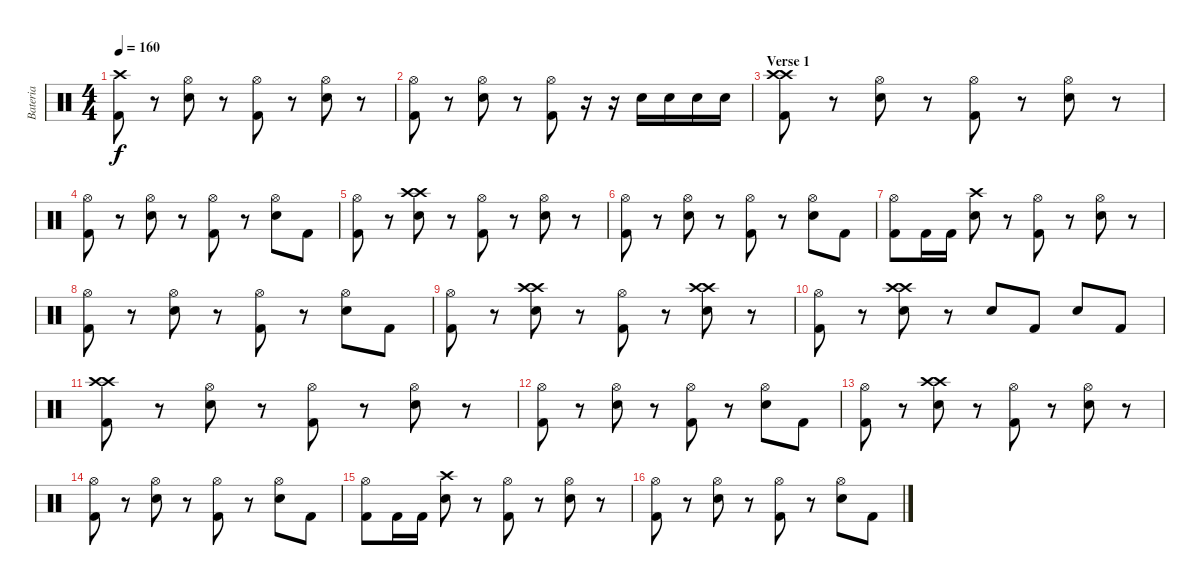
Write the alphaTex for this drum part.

\track ("Bateria" "Bateria") {instrument percussion}
\staff {score}
\articulation defaults
\ts (4 4)
\tempo 160
\clef neutral
\ks c
("Crash high (hit)" "Kick (hit) 2").8{dy f} r.8 ("Hi-Hat (open)" "Snare (hit) 2").8 r.8 ("Hi-Hat (open)" "Kick (hit) 2").8 r.8 ("Hi-Hat (open)" "Snare (hit) 2").8 r.8 |
("Hi-Hat (open)" "Kick (hit) 2").8 r.8 ("Hi-Hat (open)" "Snare (hit) 2").8 r.8 ("Hi-Hat (open)" "Kick (hit) 2").8 r.16 r.16 "Snare (hit) 2".16 "Snare (hit) 2".16 "Snare (hit) 2".16 "Snare (hit) 2".16 |
\section ("" "Verse 1")
("Crash high (hit)" "Crash high (hit)" "Kick (hit) 2").8 r.8 ("Hi-Hat (open)" "Snare (hit) 2").8 r.8 ("Hi-Hat (open)" "Kick (hit) 2").8 r.8 ("Hi-Hat (open)" "Snare (hit) 2").8 r.8 |
("Hi-Hat (open)" "Kick (hit) 2").8 r.8 ("Hi-Hat (open)" "Snare (hit) 2").8 r.8 ("Hi-Hat (open)" "Kick (hit) 2").8 r.8 ("Hi-Hat (open)" "Snare (hit) 2").8 "Kick (hit) 2".8 |
("Hi-Hat (open)" "Kick (hit) 2").8 r.8 ("Crash high (hit)" "Crash high (hit)" "Snare (hit) 2").8 r.8 ("Hi-Hat (open)" "Kick (hit) 2").8 r.8 ("Hi-Hat (open)" "Snare (hit) 2").8 r.8 |
("Hi-Hat (open)" "Kick (hit) 2").8 r.8 ("Hi-Hat (open)" "Snare (hit) 2").8 r.8 ("Hi-Hat (open)" "Kick (hit) 2").8 r.8 ("Hi-Hat (open)" "Snare (hit) 2").8 "Kick (hit) 2".8 |
("Hi-Hat (open)" "Kick (hit) 2").8 "Kick (hit) 2".16 "Kick (hit) 2".16 ("Crash high (hit)" "Snare (hit) 2").8 r.8 ("Hi-Hat (open)" "Kick (hit) 2").8 r.8 ("Hi-Hat (open)" "Snare (hit) 2").8 r.8 |
("Hi-Hat (open)" "Kick (hit) 2").8 r.8 ("Hi-Hat (open)" "Snare (hit) 2").8 r.8 ("Hi-Hat (open)" "Kick (hit) 2").8 r.8 ("Hi-Hat (open)" "Snare (hit) 2").8 "Kick (hit) 2".8 |
("Hi-Hat (open)" "Kick (hit) 2").8 r.8 ("Crash high (hit)" "Crash high (hit)" "Snare (hit) 2").8 r.8 ("Hi-Hat (open)" "Kick (hit) 2").8 r.8 ("Crash high (hit)" "Crash high (hit)" "Snare (hit) 2").8 r.8 |
("Hi-Hat (open)" "Kick (hit) 2").8 r.8 ("Crash high (hit)" "Crash high (hit)" "Snare (hit) 2").8 r.8 "Snare (hit) 2".8 "Kick (hit) 2".8 "Snare (hit) 2".8 "Kick (hit) 2".8 |
("Crash high (hit)" "Crash high (hit)" "Kick (hit) 2").8 r.8 ("Hi-Hat (open)" "Snare (hit) 2").8 r.8 ("Hi-Hat (open)" "Kick (hit) 2").8 r.8 ("Hi-Hat (open)" "Snare (hit) 2").8 r.8 |
("Hi-Hat (open)" "Kick (hit) 2").8 r.8 ("Hi-Hat (open)" "Snare (hit) 2").8 r.8 ("Hi-Hat (open)" "Kick (hit) 2").8 r.8 ("Hi-Hat (open)" "Snare (hit) 2").8 "Kick (hit) 2".8 |
("Hi-Hat (open)" "Kick (hit) 2").8 r.8 ("Crash high (hit)" "Crash high (hit)" "Snare (hit) 2").8 r.8 ("Hi-Hat (open)" "Kick (hit) 2").8 r.8 ("Hi-Hat (open)" "Snare (hit) 2").8 r.8 |
("Hi-Hat (open)" "Kick (hit) 2").8 r.8 ("Hi-Hat (open)" "Snare (hit) 2").8 r.8 ("Hi-Hat (open)" "Kick (hit) 2").8 r.8 ("Hi-Hat (open)" "Snare (hit) 2").8 "Kick (hit) 2".8 |
("Hi-Hat (open)" "Kick (hit) 2").8 "Kick (hit) 2".16 "Kick (hit) 2".16 ("Crash high (hit)" "Snare (hit) 2").8 r.8 ("Hi-Hat (open)" "Kick (hit) 2").8 r.8 ("Hi-Hat (open)" "Snare (hit) 2").8 r.8 |
("Hi-Hat (open)" "Kick (hit) 2").8 r.8 ("Hi-Hat (open)" "Snare (hit) 2").8 r.8 ("Hi-Hat (open)" "Kick (hit) 2").8 r.8 ("Hi-Hat (open)" "Snare (hit) 2").8 "Kick (hit) 2".8
